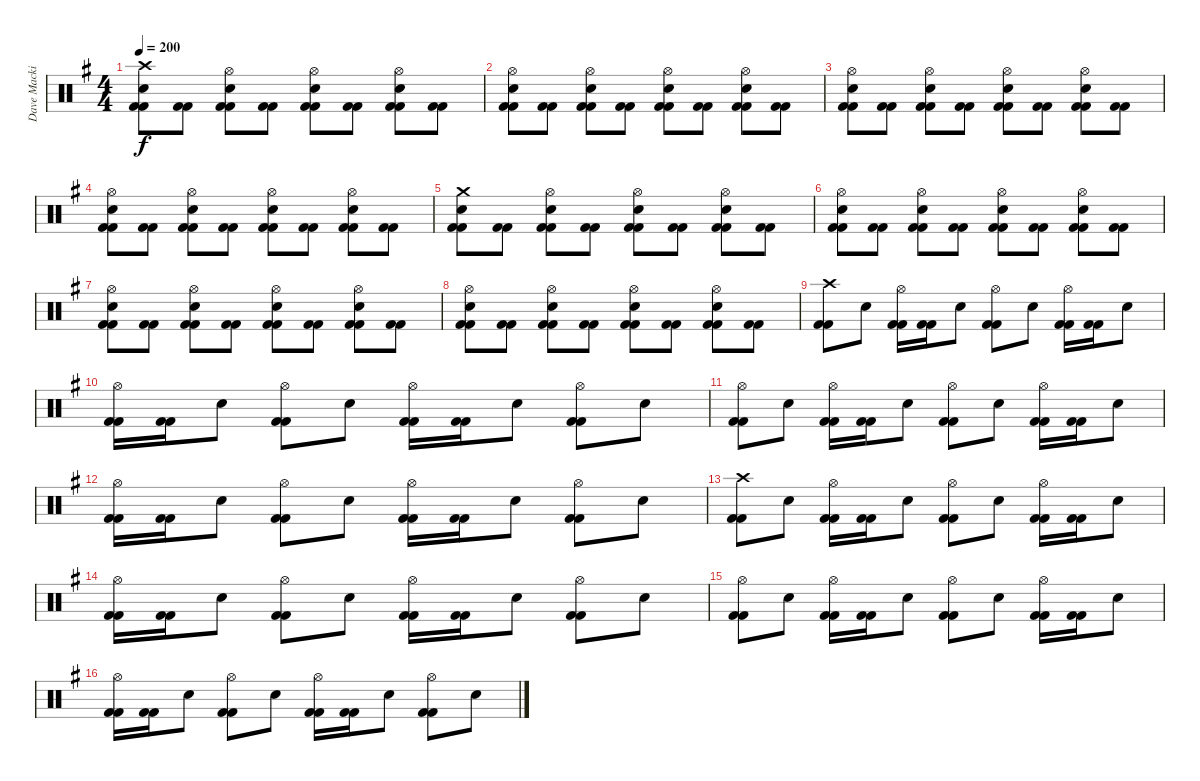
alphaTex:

\track ("Dave Mackintosh" "Dave Macki") {instrument percussion}
\staff {score}
\articulation defaults
\ts (4 4)
\tempo 200
\clef neutral
\ks g
("Crash high (hit)" "Electric Snare (hit)" "Kick (hit) 2" "Kick (hit) 2").8{dy f} ("Kick (hit) 2" "Kick (hit) 2").8 ("Hi-Hat (open)" "Electric Snare (hit)" "Kick (hit) 2" "Kick (hit) 2").8 ("Kick (hit) 2" "Kick (hit) 2").8 ("Hi-Hat (open)" "Electric Snare (hit)" "Kick (hit) 2" "Kick (hit) 2").8 ("Kick (hit) 2" "Kick (hit) 2").8 ("Hi-Hat (open)" "Electric Snare (hit)" "Kick (hit) 2" "Kick (hit) 2").8 ("Kick (hit) 2" "Kick (hit) 2").8 |
("Hi-Hat (open)" "Electric Snare (hit)" "Kick (hit) 2" "Kick (hit) 2").8 ("Kick (hit) 2" "Kick (hit) 2").8 ("Hi-Hat (open)" "Electric Snare (hit)" "Kick (hit) 2" "Kick (hit) 2").8 ("Kick (hit) 2" "Kick (hit) 2").8 ("Hi-Hat (open)" "Electric Snare (hit)" "Kick (hit) 2" "Kick (hit) 2").8 ("Kick (hit) 2" "Kick (hit) 2").8 ("Hi-Hat (open)" "Electric Snare (hit)" "Kick (hit) 2" "Kick (hit) 2").8 ("Kick (hit) 2" "Kick (hit) 2").8 |
("Hi-Hat (open)" "Electric Snare (hit)" "Kick (hit) 2" "Kick (hit) 2").8 ("Kick (hit) 2" "Kick (hit) 2").8 ("Hi-Hat (open)" "Electric Snare (hit)" "Kick (hit) 2" "Kick (hit) 2").8 ("Kick (hit) 2" "Kick (hit) 2").8 ("Hi-Hat (open)" "Electric Snare (hit)" "Kick (hit) 2" "Kick (hit) 2").8 ("Kick (hit) 2" "Kick (hit) 2").8 ("Hi-Hat (open)" "Electric Snare (hit)" "Kick (hit) 2" "Kick (hit) 2").8 ("Kick (hit) 2" "Kick (hit) 2").8 |
("Hi-Hat (open)" "Electric Snare (hit)" "Kick (hit) 2" "Kick (hit) 2").8 ("Kick (hit) 2" "Kick (hit) 2").8 ("Hi-Hat (open)" "Electric Snare (hit)" "Kick (hit) 2" "Kick (hit) 2").8 ("Kick (hit) 2" "Kick (hit) 2").8 ("Hi-Hat (open)" "Electric Snare (hit)" "Kick (hit) 2" "Kick (hit) 2").8 ("Kick (hit) 2" "Kick (hit) 2").8 ("Hi-Hat (open)" "Electric Snare (hit)" "Kick (hit) 2" "Kick (hit) 2").8 ("Kick (hit) 2" "Kick (hit) 2").8 |
("Crash medium (hit)" "Electric Snare (hit)" "Kick (hit) 2" "Kick (hit) 2").8 ("Kick (hit) 2" "Kick (hit) 2").8 ("Hi-Hat (open)" "Electric Snare (hit)" "Kick (hit) 2" "Kick (hit) 2").8 ("Kick (hit) 2" "Kick (hit) 2").8 ("Hi-Hat (open)" "Electric Snare (hit)" "Kick (hit) 2" "Kick (hit) 2").8 ("Kick (hit) 2" "Kick (hit) 2").8 ("Hi-Hat (open)" "Electric Snare (hit)" "Kick (hit) 2" "Kick (hit) 2").8 ("Kick (hit) 2" "Kick (hit) 2").8 |
("Hi-Hat (open)" "Electric Snare (hit)" "Kick (hit) 2" "Kick (hit) 2").8 ("Kick (hit) 2" "Kick (hit) 2").8 ("Hi-Hat (open)" "Electric Snare (hit)" "Kick (hit) 2" "Kick (hit) 2").8 ("Kick (hit) 2" "Kick (hit) 2").8 ("Hi-Hat (open)" "Electric Snare (hit)" "Kick (hit) 2" "Kick (hit) 2").8 ("Kick (hit) 2" "Kick (hit) 2").8 ("Hi-Hat (open)" "Electric Snare (hit)" "Kick (hit) 2" "Kick (hit) 2").8 ("Kick (hit) 2" "Kick (hit) 2").8 |
("Hi-Hat (open)" "Electric Snare (hit)" "Kick (hit) 2" "Kick (hit) 2").8 ("Kick (hit) 2" "Kick (hit) 2").8 ("Hi-Hat (open)" "Electric Snare (hit)" "Kick (hit) 2" "Kick (hit) 2").8 ("Kick (hit) 2" "Kick (hit) 2").8 ("Hi-Hat (open)" "Electric Snare (hit)" "Kick (hit) 2" "Kick (hit) 2").8 ("Kick (hit) 2" "Kick (hit) 2").8 ("Hi-Hat (open)" "Electric Snare (hit)" "Kick (hit) 2" "Kick (hit) 2").8 ("Kick (hit) 2" "Kick (hit) 2").8 |
("Hi-Hat (open)" "Electric Snare (hit)" "Kick (hit) 2" "Kick (hit) 2").8 ("Kick (hit) 2" "Kick (hit) 2").8 ("Hi-Hat (open)" "Electric Snare (hit)" "Kick (hit) 2" "Kick (hit) 2").8 ("Kick (hit) 2" "Kick (hit) 2").8 ("Hi-Hat (open)" "Electric Snare (hit)" "Kick (hit) 2" "Kick (hit) 2").8 ("Kick (hit) 2" "Kick (hit) 2").8 ("Hi-Hat (open)" "Electric Snare (hit)" "Kick (hit) 2" "Kick (hit) 2").8 ("Kick (hit) 2" "Kick (hit) 2").8 |
("Crash high (hit)" "Kick (hit) 2" "Kick (hit) 2").8 "Electric Snare (hit)".8 ("Hi-Hat (open)" "Kick (hit) 2" "Kick (hit) 2").16 ("Kick (hit) 2" "Kick (hit) 2").16 "Electric Snare (hit)".8 ("Hi-Hat (open)" "Kick (hit) 2" "Kick (hit) 2").8 "Electric Snare (hit)".8 ("Hi-Hat (open)" "Kick (hit) 2" "Kick (hit) 2").16 ("Kick (hit) 2" "Kick (hit) 2").16 "Electric Snare (hit)".8 |
("Hi-Hat (open)" "Kick (hit) 2" "Kick (hit) 2").16 ("Kick (hit) 2" "Kick (hit) 2").16 "Electric Snare (hit)".8 ("Hi-Hat (open)" "Kick (hit) 2" "Kick (hit) 2").8 "Electric Snare (hit)".8 ("Hi-Hat (open)" "Kick (hit) 2" "Kick (hit) 2").16 ("Kick (hit) 2" "Kick (hit) 2").16 "Electric Snare (hit)".8 ("Hi-Hat (open)" "Kick (hit) 2" "Kick (hit) 2").8 "Electric Snare (hit)".8 |
("Hi-Hat (open)" "Kick (hit) 2" "Kick (hit) 2").8 "Electric Snare (hit)".8 ("Hi-Hat (open)" "Kick (hit) 2" "Kick (hit) 2").16 ("Kick (hit) 2" "Kick (hit) 2").16 "Electric Snare (hit)".8 ("Hi-Hat (open)" "Kick (hit) 2" "Kick (hit) 2").8 "Electric Snare (hit)".8 ("Hi-Hat (open)" "Kick (hit) 2" "Kick (hit) 2").16 ("Kick (hit) 2" "Kick (hit) 2").16 "Electric Snare (hit)".8 |
("Hi-Hat (open)" "Kick (hit) 2" "Kick (hit) 2").16 ("Kick (hit) 2" "Kick (hit) 2").16 "Electric Snare (hit)".8 ("Hi-Hat (open)" "Kick (hit) 2" "Kick (hit) 2").8 "Electric Snare (hit)".8 ("Hi-Hat (open)" "Kick (hit) 2" "Kick (hit) 2").16 ("Kick (hit) 2" "Kick (hit) 2").16 "Electric Snare (hit)".8 ("Hi-Hat (open)" "Kick (hit) 2" "Kick (hit) 2").8 "Electric Snare (hit)".8 |
("Crash high (hit)" "Kick (hit) 2" "Kick (hit) 2").8 "Electric Snare (hit)".8 ("Hi-Hat (open)" "Kick (hit) 2" "Kick (hit) 2").16 ("Kick (hit) 2" "Kick (hit) 2").16 "Electric Snare (hit)".8 ("Hi-Hat (open)" "Kick (hit) 2" "Kick (hit) 2").8 "Electric Snare (hit)".8 ("Hi-Hat (open)" "Kick (hit) 2" "Kick (hit) 2").16 ("Kick (hit) 2" "Kick (hit) 2").16 "Electric Snare (hit)".8 |
("Hi-Hat (open)" "Kick (hit) 2" "Kick (hit) 2").16 ("Kick (hit) 2" "Kick (hit) 2").16 "Electric Snare (hit)".8 ("Hi-Hat (open)" "Kick (hit) 2" "Kick (hit) 2").8 "Electric Snare (hit)".8 ("Hi-Hat (open)" "Kick (hit) 2" "Kick (hit) 2").16 ("Kick (hit) 2" "Kick (hit) 2").16 "Electric Snare (hit)".8 ("Hi-Hat (open)" "Kick (hit) 2" "Kick (hit) 2").8 "Electric Snare (hit)".8 |
("Hi-Hat (open)" "Kick (hit) 2" "Kick (hit) 2").8 "Electric Snare (hit)".8 ("Hi-Hat (open)" "Kick (hit) 2" "Kick (hit) 2").16 ("Kick (hit) 2" "Kick (hit) 2").16 "Electric Snare (hit)".8 ("Hi-Hat (open)" "Kick (hit) 2" "Kick (hit) 2").8 "Electric Snare (hit)".8 ("Hi-Hat (open)" "Kick (hit) 2" "Kick (hit) 2").16 ("Kick (hit) 2" "Kick (hit) 2").16 "Electric Snare (hit)".8 |
("Hi-Hat (open)" "Kick (hit) 2" "Kick (hit) 2").16 ("Kick (hit) 2" "Kick (hit) 2").16 "Electric Snare (hit)".8 ("Hi-Hat (open)" "Kick (hit) 2" "Kick (hit) 2").8 "Electric Snare (hit)".8 ("Hi-Hat (open)" "Kick (hit) 2" "Kick (hit) 2").16 ("Kick (hit) 2" "Kick (hit) 2").16 "Electric Snare (hit)".8 ("Hi-Hat (open)" "Kick (hit) 2" "Kick (hit) 2").8 "Electric Snare (hit)".8
